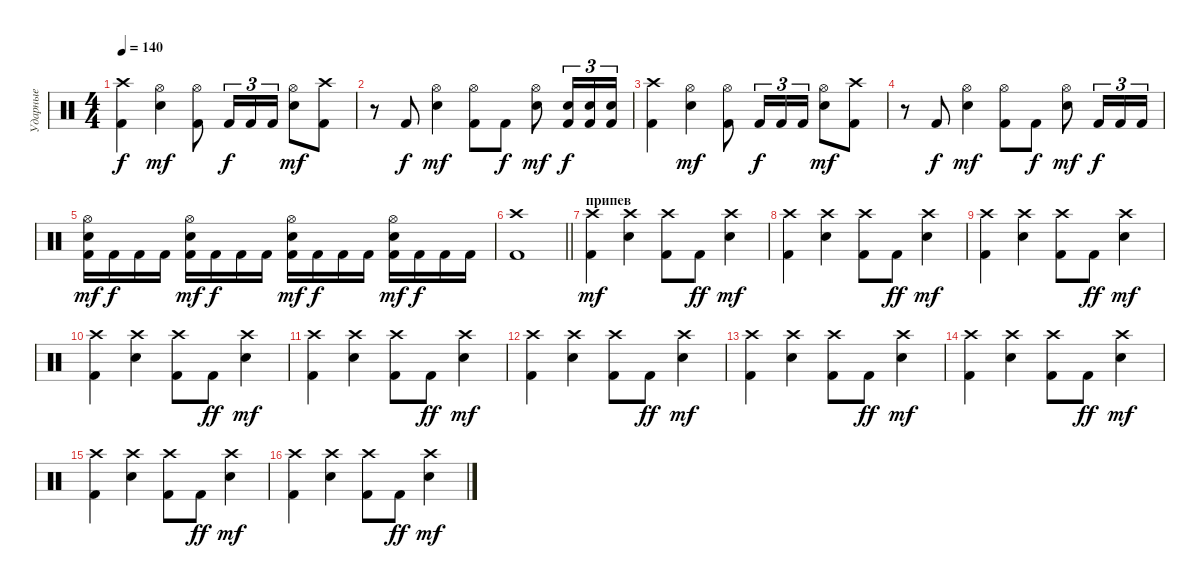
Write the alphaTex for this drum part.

\track ("Ударные" "Ударные") {instrument percussion}
\staff {score}
\articulation defaults
\ts (4 4)
\tempo 140
\clef neutral
\ks c
("Kick (hit) 2" "Crash high (hit)").4{dy f} ("Snare (hit) 2" "Hi-Hat (open)").4{dy mf} ("Kick (hit) 2" "Hi-Hat (open)").8 "Kick (hit) 2".16{tu (3 2) dy f} "Kick (hit) 2".16{tu (3 2)} "Kick (hit) 2".16{tu (3 2)} ("Snare (hit) 2" "Hi-Hat (open)").8{dy mf} ("Kick (hit) 2" "Crash high (hit)").8 |
r.8 "Kick (hit) 2".8{dy f} ("Snare (hit) 2" "Hi-Hat (open)").4{dy mf} ("Kick (hit) 2" "Hi-Hat (open)").8 "Kick (hit) 2".8{dy f} ("Snare (hit) 2" "Hi-Hat (open)").8{dy mf} ("Kick (hit) 2" "Snare (hit) 2").16{tu (3 2) dy f} ("Kick (hit) 2" "Snare (hit) 2").16{tu (3 2)} ("Kick (hit) 2" "Snare (hit) 2").16{tu (3 2)} |
("Kick (hit) 2" "Crash high (hit)").4 ("Snare (hit) 2" "Hi-Hat (open)").4{dy mf} ("Kick (hit) 2" "Hi-Hat (open)").8 "Kick (hit) 2".16{tu (3 2) dy f} "Kick (hit) 2".16{tu (3 2)} "Kick (hit) 2".16{tu (3 2)} ("Snare (hit) 2" "Hi-Hat (open)").8{dy mf} ("Kick (hit) 2" "Crash high (hit)").8 |
r.8 "Kick (hit) 2".8{dy f} ("Snare (hit) 2" "Hi-Hat (open)").4{dy mf} ("Kick (hit) 2" "Hi-Hat (open)").8 "Kick (hit) 2".8{dy f} ("Snare (hit) 2" "Hi-Hat (open)").8{dy mf} "Kick (hit) 2".16{tu (3 2) dy f} "Kick (hit) 2".16{tu (3 2)} "Kick (hit) 2".16{tu (3 2)} |
("Kick (hit) 2" "Snare (hit) 2" "Hi-Hat (open)").16{dy mf} "Kick (hit) 2".16{dy f} "Kick (hit) 2".16 "Kick (hit) 2".16 ("Kick (hit) 2" "Snare (hit) 2" "Hi-Hat (open)").16{dy mf} "Kick (hit) 2".16{dy f} "Kick (hit) 2".16 "Kick (hit) 2".16 ("Kick (hit) 2" "Snare (hit) 2" "Hi-Hat (open)").16{dy mf} "Kick (hit) 2".16{dy f} "Kick (hit) 2".16 "Kick (hit) 2".16 ("Kick (hit) 2" "Snare (hit) 2" "Hi-Hat (open)").16{dy mf} "Kick (hit) 2".16{dy f} "Kick (hit) 2".16 "Kick (hit) 2".16 |
\barLineRight lightlight
("Kick (hit) 2" "Crash high (hit)").1 |
\section ("" "припев")
("Kick (hit) 2" "Crash high (hit)").4{dy mf} ("Snare (hit) 2" "Crash high (hit)").4 ("Kick (hit) 2" "Crash high (hit)").8 "Kick (hit) 2".8{dy ff} ("Snare (hit) 2" "Crash high (hit)").4{dy mf} |
("Kick (hit) 2" "Crash high (hit)").4 ("Snare (hit) 2" "Crash high (hit)").4 ("Kick (hit) 2" "Crash high (hit)").8 "Kick (hit) 2".8{dy ff} ("Snare (hit) 2" "Crash high (hit)").4{dy mf} |
("Kick (hit) 2" "Crash high (hit)").4 ("Snare (hit) 2" "Crash high (hit)").4 ("Kick (hit) 2" "Crash high (hit)").8 "Kick (hit) 2".8{dy ff} ("Snare (hit) 2" "Crash high (hit)").4{dy mf} |
("Kick (hit) 2" "Crash high (hit)").4 ("Snare (hit) 2" "Crash high (hit)").4 ("Kick (hit) 2" "Crash high (hit)").8 "Kick (hit) 2".8{dy ff} ("Snare (hit) 2" "Crash high (hit)").4{dy mf} |
("Kick (hit) 2" "Crash high (hit)").4 ("Snare (hit) 2" "Crash high (hit)").4 ("Kick (hit) 2" "Crash high (hit)").8 "Kick (hit) 2".8{dy ff} ("Snare (hit) 2" "Crash high (hit)").4{dy mf} |
("Kick (hit) 2" "Crash high (hit)").4 ("Snare (hit) 2" "Crash high (hit)").4 ("Kick (hit) 2" "Crash high (hit)").8 "Kick (hit) 2".8{dy ff} ("Snare (hit) 2" "Crash high (hit)").4{dy mf} |
("Kick (hit) 2" "Crash high (hit)").4 ("Snare (hit) 2" "Crash high (hit)").4 ("Kick (hit) 2" "Crash high (hit)").8 "Kick (hit) 2".8{dy ff} ("Snare (hit) 2" "Crash high (hit)").4{dy mf} |
("Kick (hit) 2" "Crash high (hit)").4 ("Snare (hit) 2" "Crash high (hit)").4 ("Kick (hit) 2" "Crash high (hit)").8 "Kick (hit) 2".8{dy ff} ("Snare (hit) 2" "Crash high (hit)").4{dy mf} |
("Kick (hit) 2" "Crash high (hit)").4 ("Snare (hit) 2" "Crash high (hit)").4 ("Kick (hit) 2" "Crash high (hit)").8 "Kick (hit) 2".8{dy ff} ("Snare (hit) 2" "Crash high (hit)").4{dy mf} |
("Kick (hit) 2" "Crash high (hit)").4 ("Snare (hit) 2" "Crash high (hit)").4 ("Kick (hit) 2" "Crash high (hit)").8 "Kick (hit) 2".8{dy ff} ("Snare (hit) 2" "Crash high (hit)").4{dy mf}
